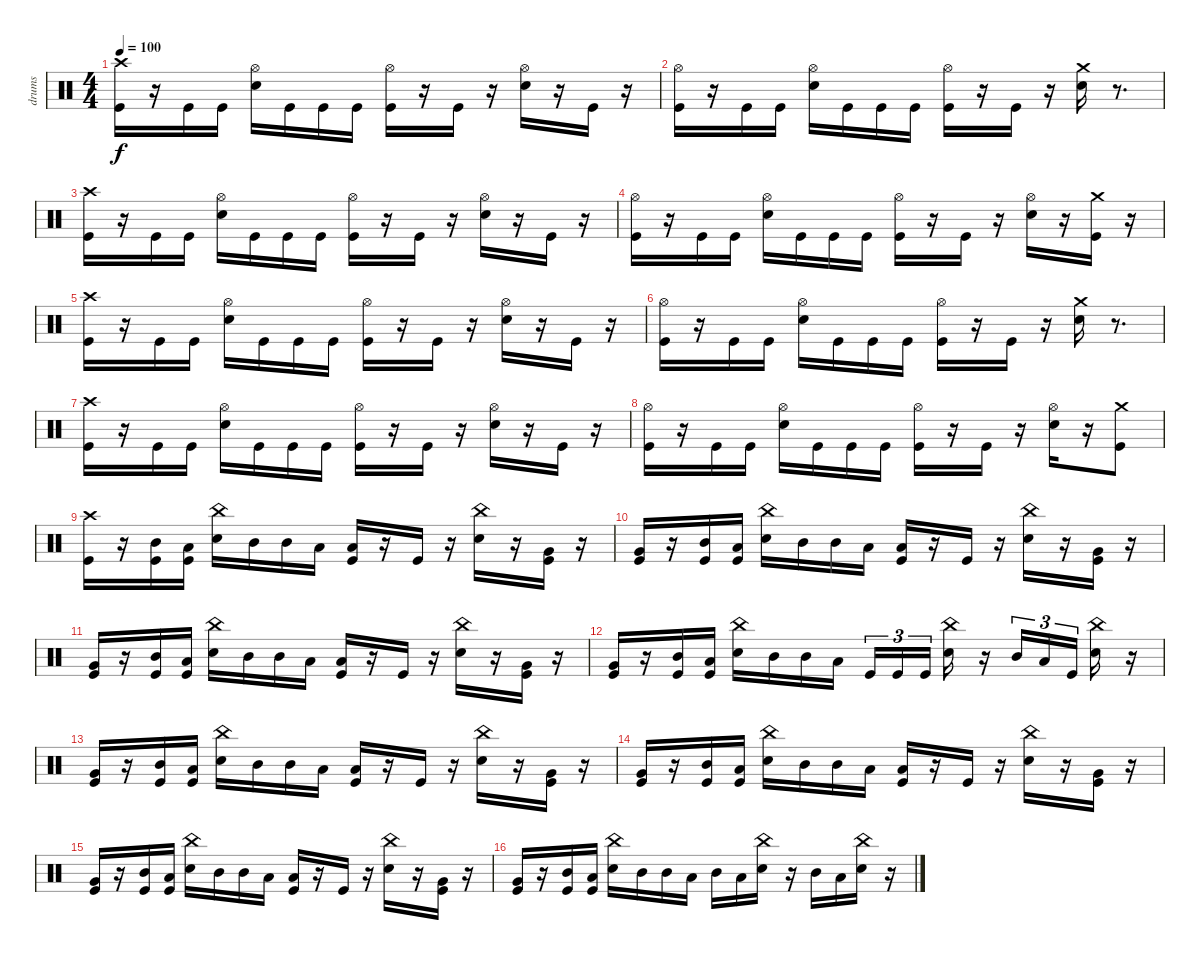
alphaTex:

\track ("drums" "drums") {instrument percussion}
\staff {score}
\articulation defaults
\ts (4 4)
\tempo 100
\clef neutral
\ks c
("Crash high (hit)" "Kick (hit)").16{dy f} r.16 "Kick (hit)".16 "Kick (hit)".16 ("Hi-Hat (open)" "Snare (hit) 2").16 "Kick (hit)".16 "Kick (hit)".16 "Kick (hit)".16 ("Hi-Hat (open)" "Kick (hit)").16 r.16 "Kick (hit)".16 r.16 ("Snare (hit) 2" "Hi-Hat (open)").16 r.16 "Kick (hit)".16 r.16 |
("Hi-Hat (open)" "Kick (hit)").16 r.16 "Kick (hit)".16 "Kick (hit)".16 ("Hi-Hat (open)" "Snare (hit) 2").16 "Kick (hit)".16 "Kick (hit)".16 "Kick (hit)".16 ("Hi-Hat (open)" "Kick (hit)").16 r.16 "Kick (hit)".16 r.16 ("Crash medium (hit)" "Snare (hit) 2").16 r.8{d} |
("Crash high (hit)" "Kick (hit)").16 r.16 "Kick (hit)".16 "Kick (hit)".16 ("Hi-Hat (open)" "Snare (hit) 2").16 "Kick (hit)".16 "Kick (hit)".16 "Kick (hit)".16 ("Hi-Hat (open)" "Kick (hit)").16 r.16 "Kick (hit)".16 r.16 ("Snare (hit) 2" "Hi-Hat (open)").16 r.16 "Kick (hit)".16 r.16 |
("Hi-Hat (open)" "Kick (hit)").16 r.16 "Kick (hit)".16 "Kick (hit)".16 ("Hi-Hat (open)" "Snare (hit) 2").16 "Kick (hit)".16 "Kick (hit)".16 "Kick (hit)".16 ("Hi-Hat (open)" "Kick (hit)").16 r.16 "Kick (hit)".16 r.16 ("Snare (hit) 2" "Hi-Hat (open)").16 r.16 ("Kick (hit)" "Crash medium (hit)").16 r.16 |
("Crash high (hit)" "Kick (hit)").16 r.16 "Kick (hit)".16 "Kick (hit)".16 ("Hi-Hat (open)" "Snare (hit) 2").16 "Kick (hit)".16 "Kick (hit)".16 "Kick (hit)".16 ("Hi-Hat (open)" "Kick (hit)").16 r.16 "Kick (hit)".16 r.16 ("Snare (hit) 2" "Hi-Hat (open)").16 r.16 "Kick (hit)".16 r.16 |
("Hi-Hat (open)" "Kick (hit)").16 r.16 "Kick (hit)".16 "Kick (hit)".16 ("Hi-Hat (open)" "Snare (hit) 2").16 "Kick (hit)".16 "Kick (hit)".16 "Kick (hit)".16 ("Hi-Hat (open)" "Kick (hit)").16 r.16 "Kick (hit)".16 r.16 ("Crash medium (hit)" "Snare (hit) 2").16 r.8{d} |
("Crash high (hit)" "Kick (hit)").16 r.16 "Kick (hit)".16 "Kick (hit)".16 ("Hi-Hat (open)" "Snare (hit) 2").16 "Kick (hit)".16 "Kick (hit)".16 "Kick (hit)".16 ("Hi-Hat (open)" "Kick (hit)").16 r.16 "Kick (hit)".16 r.16 ("Snare (hit) 2" "Hi-Hat (open)").16 r.16 "Kick (hit)".16 r.16 |
("Hi-Hat (open)" "Kick (hit)").16 r.16 "Kick (hit)".16 "Kick (hit)".16 ("Hi-Hat (open)" "Snare (hit) 2").16 "Kick (hit)".16 "Kick (hit)".16 "Kick (hit)".16 ("Hi-Hat (open)" "Kick (hit)").16 r.16 "Kick (hit)".16 r.16 ("Snare (hit) 2" "Hi-Hat (open)").16 r.16 ("Crash medium (hit)" "Kick (hit)").8 |
("Crash high (hit)" "Kick (hit)").16 r.16 ("Mid Tom (hit)" "Kick (hit)").16 ("Low Tom (hit)" "Kick (hit)").16 ("China (hit)" "Snare (hit) 2").16 "Mid Tom (hit)".16 "Mid Tom (hit)".16 "Low Tom (hit)".16 ("Kick (hit)" "Low Tom (hit)").16 r.16 "Kick (hit)".16 r.16 ("China (hit)" "Snare (hit) 2").16 r.16 ("Very Low Tom (hit)" "Kick (hit)").16 r.16 |
("Very Low Tom (hit)" "Kick (hit)").16 r.16 ("Mid Tom (hit)" "Kick (hit)").16 ("Low Tom (hit)" "Kick (hit)").16 ("China (hit)" "Snare (hit) 2").16 "Mid Tom (hit)".16 "Mid Tom (hit)".16 "Low Tom (hit)".16 ("Kick (hit)" "Low Tom (hit)").16 r.16 "Kick (hit)".16 r.16 ("China (hit)" "Snare (hit) 2").16 r.16 ("Very Low Tom (hit)" "Kick (hit)").16 r.16 |
("Very Low Tom (hit)" "Kick (hit)").16 r.16 ("Mid Tom (hit)" "Kick (hit)").16 ("Low Tom (hit)" "Kick (hit)").16 ("China (hit)" "Snare (hit) 2").16 "Mid Tom (hit)".16 "Mid Tom (hit)".16 "Low Tom (hit)".16 ("Kick (hit)" "Low Tom (hit)").16 r.16 "Kick (hit)".16 r.16 ("China (hit)" "Snare (hit) 2").16 r.16 ("Very Low Tom (hit)" "Kick (hit)").16 r.16 |
("Very Low Tom (hit)" "Kick (hit)").16 r.16 ("Mid Tom (hit)" "Kick (hit)").16 ("Low Tom (hit)" "Kick (hit)").16 ("China (hit)" "Snare (hit) 2").16 "Mid Tom (hit)".16 "Mid Tom (hit)".16 "Low Tom (hit)".16 "Kick (hit)".16{tu (3 2)} "Kick (hit)".16{tu (3 2)} "Kick (hit)".16{tu (3 2)} ("China (hit)" "Snare (hit) 2").16 r.16 "Mid Tom (hit)".16{tu (3 2)} "Low Tom (hit)".16{tu (3 2)} "Kick (hit)".16{tu (3 2)} ("China (hit)" "Snare (hit) 2").16 r.16 |
("Very Low Tom (hit)" "Kick (hit)").16 r.16 ("Mid Tom (hit)" "Kick (hit)").16 ("Low Tom (hit)" "Kick (hit)").16 ("China (hit)" "Snare (hit) 2").16 "Mid Tom (hit)".16 "Mid Tom (hit)".16 "Low Tom (hit)".16 ("Kick (hit)" "Low Tom (hit)").16 r.16 "Kick (hit)".16 r.16 ("China (hit)" "Snare (hit) 2").16 r.16 ("Very Low Tom (hit)" "Kick (hit)").16 r.16 |
("Very Low Tom (hit)" "Kick (hit)").16 r.16 ("Mid Tom (hit)" "Kick (hit)").16 ("Low Tom (hit)" "Kick (hit)").16 ("China (hit)" "Snare (hit) 2").16 "Mid Tom (hit)".16 "Mid Tom (hit)".16 "Low Tom (hit)".16 ("Kick (hit)" "Low Tom (hit)").16 r.16 "Kick (hit)".16 r.16 ("China (hit)" "Snare (hit) 2").16 r.16 ("Very Low Tom (hit)" "Kick (hit)").16 r.16 |
("Very Low Tom (hit)" "Kick (hit)").16 r.16 ("Mid Tom (hit)" "Kick (hit)").16 ("Low Tom (hit)" "Kick (hit)").16 ("China (hit)" "Snare (hit) 2").16 "Mid Tom (hit)".16 "Mid Tom (hit)".16 "Low Tom (hit)".16 ("Kick (hit)" "Low Tom (hit)").16 r.16 "Kick (hit)".16 r.16 ("China (hit)" "Snare (hit) 2").16 r.16 ("Very Low Tom (hit)" "Kick (hit)").16 r.16 |
("Very Low Tom (hit)" "Kick (hit)").16 r.16 ("Mid Tom (hit)" "Kick (hit)").16 ("Low Tom (hit)" "Kick (hit)").16 ("China (hit)" "Snare (hit) 2").16 "Mid Tom (hit)".16 "Mid Tom (hit)".16 "Low Tom (hit)".16 "Mid Tom (hit)".16 "Low Tom (hit)".16 ("Snare (hit) 2" "China (hit)").16 r.16 "Mid Tom (hit)".16 "Low Tom (hit)".16 ("China (hit)" "Snare (hit) 2").16 r.16
